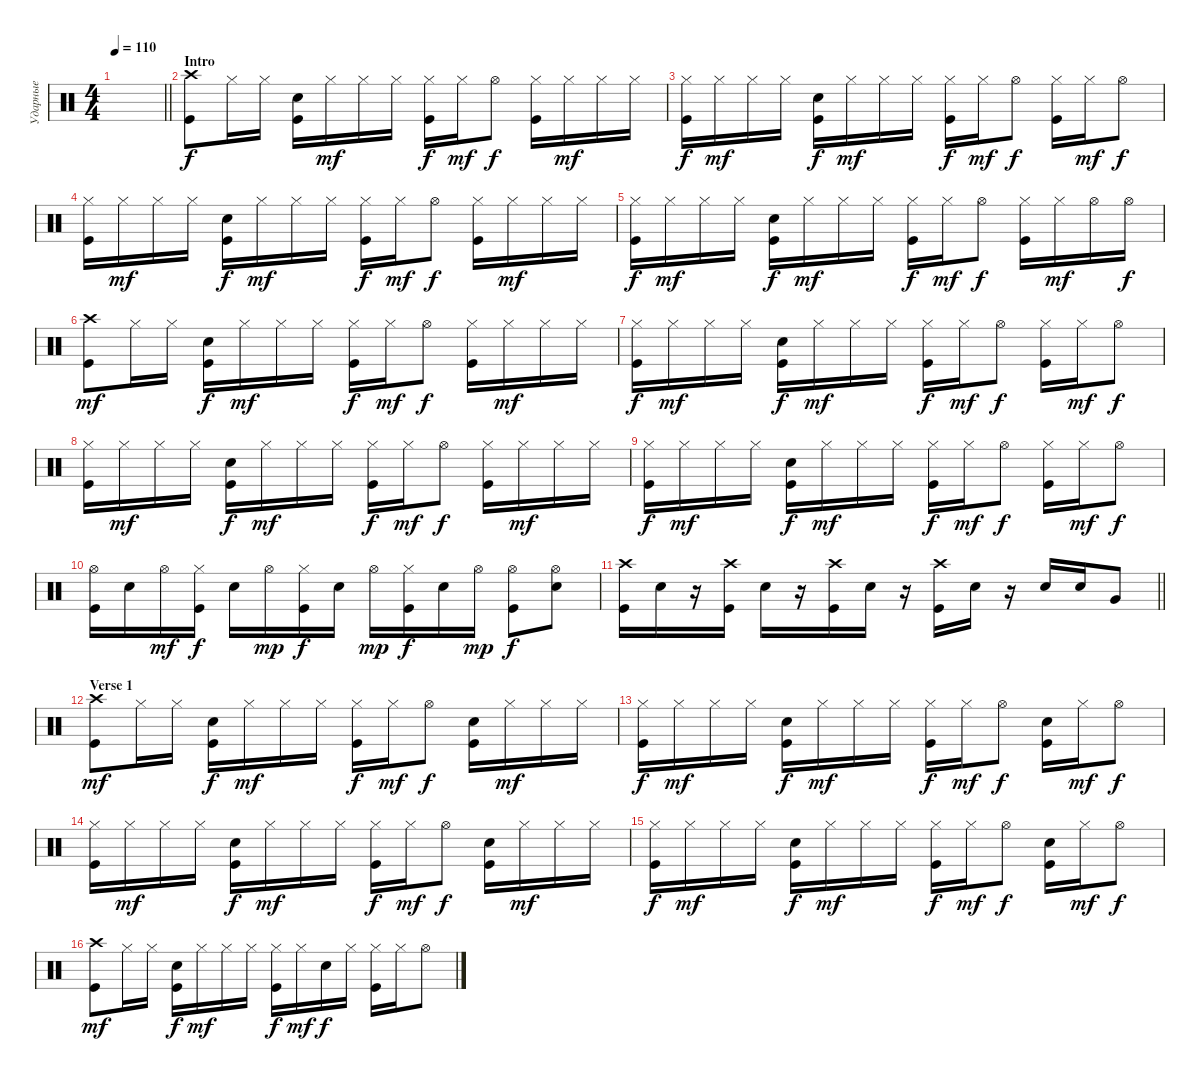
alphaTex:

\track ("Ударные" "Ударные") {instrument percussion}
\staff {score}
\articulation defaults
\ts (4 4)
\tempo 110
\clef neutral
\barLineRight lightlight
\ks c
|
\section ("" "Intro")
("Crash high (hit)" "Kick (hit)").8 "Hi-Hat (closed)".16 "Hi-Hat (closed)".16 ("Snare (hit) 2" "Kick (hit)").16{dy f} "Hi-Hat (closed)".16{dy mf} "Hi-Hat (closed)".16 "Hi-Hat (closed)".16 ("Hi-Hat (closed)" "Kick (hit)").16{dy f} "Hi-Hat (closed)".16{dy mf} "Hi-Hat (open)".8{dy f} ("Hi-Hat (closed)" "Kick (hit)").16 "Hi-Hat (closed)".16{dy mf} "Hi-Hat (closed)".16 "Hi-Hat (closed)".16 |
("Hi-Hat (closed)" "Kick (hit)").16{dy f} "Hi-Hat (closed)".16{dy mf} "Hi-Hat (closed)".16 "Hi-Hat (closed)".16 ("Snare (hit) 2" "Kick (hit)").16{dy f} "Hi-Hat (closed)".16{dy mf} "Hi-Hat (closed)".16 "Hi-Hat (closed)".16 ("Hi-Hat (closed)" "Kick (hit)").16{dy f} "Hi-Hat (closed)".16{dy mf} "Hi-Hat (open)".8{dy f} ("Hi-Hat (closed)" "Kick (hit)").16 "Hi-Hat (closed)".16{dy mf} "Hi-Hat (open)".8{dy f} |
("Hi-Hat (closed)" "Kick (hit)").16 "Hi-Hat (closed)".16{dy mf} "Hi-Hat (closed)".16 "Hi-Hat (closed)".16 ("Snare (hit) 2" "Kick (hit)").16{dy f} "Hi-Hat (closed)".16{dy mf} "Hi-Hat (closed)".16 "Hi-Hat (closed)".16 ("Hi-Hat (closed)" "Kick (hit)").16{dy f} "Hi-Hat (closed)".16{dy mf} "Hi-Hat (open)".8{dy f} ("Hi-Hat (closed)" "Kick (hit)").16 "Hi-Hat (closed)".16{dy mf} "Hi-Hat (closed)".16 "Hi-Hat (closed)".16 |
("Hi-Hat (closed)" "Kick (hit)").16{dy f} "Hi-Hat (closed)".16{dy mf} "Hi-Hat (closed)".16 "Hi-Hat (closed)".16 ("Snare (hit) 2" "Kick (hit)").16{dy f} "Hi-Hat (closed)".16{dy mf} "Hi-Hat (closed)".16 "Hi-Hat (closed)".16 ("Hi-Hat (closed)" "Kick (hit)").16{dy f} "Hi-Hat (closed)".16{dy mf} "Hi-Hat (open)".8{dy f} ("Hi-Hat (closed)" "Kick (hit)").16 "Hi-Hat (closed)".16{dy mf} "Hi-Hat (open)".16 "Hi-Hat (open)".16{dy f} |
("Crash high (hit)" "Kick (hit)").8{dy mf} "Hi-Hat (closed)".16 "Hi-Hat (closed)".16 ("Snare (hit) 2" "Kick (hit)").16{dy f} "Hi-Hat (closed)".16{dy mf} "Hi-Hat (closed)".16 "Hi-Hat (closed)".16 ("Hi-Hat (closed)" "Kick (hit)").16{dy f} "Hi-Hat (closed)".16{dy mf} "Hi-Hat (open)".8{dy f} ("Hi-Hat (closed)" "Kick (hit)").16 "Hi-Hat (closed)".16{dy mf} "Hi-Hat (closed)".16 "Hi-Hat (closed)".16 |
("Hi-Hat (closed)" "Kick (hit)").16{dy f} "Hi-Hat (closed)".16{dy mf} "Hi-Hat (closed)".16 "Hi-Hat (closed)".16 ("Snare (hit) 2" "Kick (hit)").16{dy f} "Hi-Hat (closed)".16{dy mf} "Hi-Hat (closed)".16 "Hi-Hat (closed)".16 ("Hi-Hat (closed)" "Kick (hit)").16{dy f} "Hi-Hat (closed)".16{dy mf} "Hi-Hat (open)".8{dy f} ("Hi-Hat (closed)" "Kick (hit)").16 "Hi-Hat (closed)".16{dy mf} "Hi-Hat (open)".8{dy f} |
("Hi-Hat (closed)" "Kick (hit)").16 "Hi-Hat (closed)".16{dy mf} "Hi-Hat (closed)".16 "Hi-Hat (closed)".16 ("Snare (hit) 2" "Kick (hit)").16{dy f} "Hi-Hat (closed)".16{dy mf} "Hi-Hat (closed)".16 "Hi-Hat (closed)".16 ("Hi-Hat (closed)" "Kick (hit)").16{dy f} "Hi-Hat (closed)".16{dy mf} "Hi-Hat (open)".8{dy f} ("Hi-Hat (closed)" "Kick (hit)").16 "Hi-Hat (closed)".16{dy mf} "Hi-Hat (closed)".16 "Hi-Hat (closed)".16 |
("Hi-Hat (closed)" "Kick (hit)").16{dy f} "Hi-Hat (closed)".16{dy mf} "Hi-Hat (closed)".16 "Hi-Hat (closed)".16 ("Snare (hit) 2" "Kick (hit)").16{dy f} "Hi-Hat (closed)".16{dy mf} "Hi-Hat (closed)".16 "Hi-Hat (closed)".16 ("Hi-Hat (closed)" "Kick (hit)").16{dy f} "Hi-Hat (closed)".16{dy mf} "Hi-Hat (open)".8{dy f} ("Hi-Hat (closed)" "Kick (hit)").16 "Hi-Hat (closed)".16{dy mf} "Hi-Hat (open)".8{dy f} |
\ks aminor
("Kick (hit)" "Hi-Hat (open)").16 "Snare (hit) 2".16 "Hi-Hat (open)".16{dy mf} ("Kick (hit)" "Hi-Hat (closed)").16{dy f} "Snare (hit) 2".16 "Hi-Hat (open)".16{dy mp} ("Kick (hit)" "Hi-Hat (closed)").16{dy f} "Snare (hit) 2".16 "Hi-Hat (open)".16{dy mp} ("Kick (hit)" "Hi-Hat (closed)").16{dy f} "Snare (hit) 2".16 "Hi-Hat (open)".16{dy mp} ("Kick (hit)" "Hi-Hat (open)").8{dy f} ("Snare (hit) 2" "Hi-Hat (open)").8 |
\barLineRight lightlight
("Kick (hit)" "Crash high (hit)").16 "Snare (hit) 2".16 r.16 ("Kick (hit)" "Crash high (hit)").16 "Snare (hit) 2".16 r.16 ("Kick (hit)" "Crash high (hit)").16 "Snare (hit) 2".16 r.16 ("Kick (hit)" "Crash high (hit)").16 "Snare (hit) 2".16 r.16 "Snare (hit) 2".16 "Snare (hit) 2".16 "Very Low Tom (hit)".8 |
\section ("" "Verse 1")
\ks c
("Crash high (hit)" "Kick (hit)").8{dy mf} "Hi-Hat (closed)".16 "Hi-Hat (closed)".16 ("Snare (hit) 2" "Kick (hit)").16{dy f} "Hi-Hat (closed)".16{dy mf} "Hi-Hat (closed)".16 "Hi-Hat (closed)".16 ("Hi-Hat (closed)" "Kick (hit)").16{dy f} "Hi-Hat (closed)".16{dy mf} "Hi-Hat (open)".8{dy f} ("Kick (hit)" "Snare (hit) 2").16 "Hi-Hat (closed)".16{dy mf} "Hi-Hat (closed)".16 "Hi-Hat (closed)".16 |
("Hi-Hat (closed)" "Kick (hit)").16{dy f} "Hi-Hat (closed)".16{dy mf} "Hi-Hat (closed)".16 "Hi-Hat (closed)".16 ("Snare (hit) 2" "Kick (hit)").16{dy f} "Hi-Hat (closed)".16{dy mf} "Hi-Hat (closed)".16 "Hi-Hat (closed)".16 ("Hi-Hat (closed)" "Kick (hit)").16{dy f} "Hi-Hat (closed)".16{dy mf} "Hi-Hat (open)".8{dy f} ("Kick (hit)" "Snare (hit) 2").16 "Hi-Hat (closed)".16{dy mf} "Hi-Hat (open)".8{dy f} |
("Hi-Hat (closed)" "Kick (hit)").16 "Hi-Hat (closed)".16{dy mf} "Hi-Hat (closed)".16 "Hi-Hat (closed)".16 ("Snare (hit) 2" "Kick (hit)").16{dy f} "Hi-Hat (closed)".16{dy mf} "Hi-Hat (closed)".16 "Hi-Hat (closed)".16 ("Hi-Hat (closed)" "Kick (hit)").16{dy f} "Hi-Hat (closed)".16{dy mf} "Hi-Hat (open)".8{dy f} ("Kick (hit)" "Snare (hit) 2").16 "Hi-Hat (closed)".16{dy mf} "Hi-Hat (closed)".16 "Hi-Hat (closed)".16 |
("Hi-Hat (closed)" "Kick (hit)").16{dy f} "Hi-Hat (closed)".16{dy mf} "Hi-Hat (closed)".16 "Hi-Hat (closed)".16 ("Snare (hit) 2" "Kick (hit)").16{dy f} "Hi-Hat (closed)".16{dy mf} "Hi-Hat (closed)".16 "Hi-Hat (closed)".16 ("Hi-Hat (closed)" "Kick (hit)").16{dy f} "Hi-Hat (closed)".16{dy mf} "Hi-Hat (open)".8{dy f} ("Kick (hit)" "Snare (hit) 2").16 "Hi-Hat (closed)".16{dy mf} "Hi-Hat (open)".8{dy f} |
("Crash high (hit)" "Kick (hit)").8{dy mf} "Hi-Hat (closed)".16 "Hi-Hat (closed)".16 ("Snare (hit) 2" "Kick (hit)").16{dy f} "Hi-Hat (closed)".16{dy mf} "Hi-Hat (closed)".16 "Hi-Hat (closed)".16 ("Hi-Hat (closed)" "Kick (hit)").16{dy f} "Hi-Hat (closed)".16{dy mf} "Snare (hit) 2".16{dy f} "Hi-Hat (closed)".16 ("Hi-Hat (closed)" "Kick (hit)").16 "Hi-Hat (closed)".16 "Hi-Hat (open)".8
